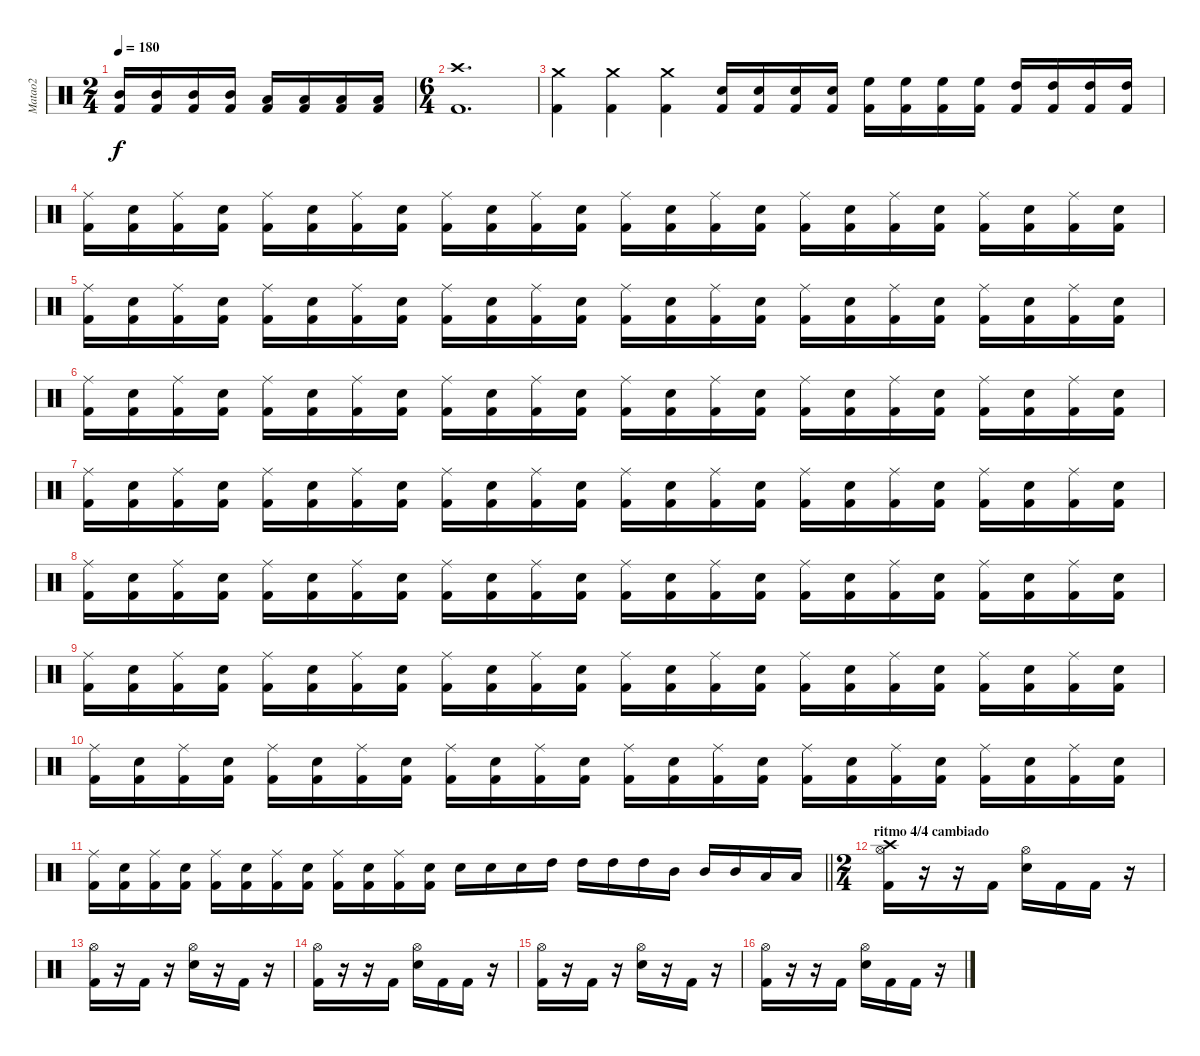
\track ("Matao2" "Matao2") {instrument percussion}
\staff {score}
\articulation defaults
\ts (2 4)
\tempo 180
\clef neutral
\ks c
("Kick (hit) 2" "Mid Tom (hit)").16{dy f} ("Kick (hit) 2" "Mid Tom (hit)").16 ("Kick (hit) 2" "Mid Tom (hit)").16 ("Kick (hit) 2" "Mid Tom (hit)").16 ("Kick (hit) 2" "Low Tom (hit)").16 ("Kick (hit) 2" "Low Tom (hit)").16 ("Kick (hit) 2" "Low Tom (hit)").16 ("Kick (hit) 2" "Low Tom (hit)").16 |
\ts (6 4)
("Kick (hit) 2" "Crash high (hit)").1{d} |
("Kick (hit) 2" "Crash medium (hit)").4 ("Kick (hit) 2" "Crash medium (hit)").4 ("Kick (hit) 2" "Crash medium (hit)").4 ("Kick (hit) 2" "Electric Snare (hit)").16 ("Kick (hit) 2" "Electric Snare (hit)").16 ("Kick (hit) 2" "Electric Snare (hit)").16 ("Kick (hit) 2" "Electric Snare (hit)").16 ("Kick (hit) 2" "High Floor Tom (hit)").16 ("Kick (hit) 2" "High Floor Tom (hit)").16 ("Kick (hit) 2" "High Floor Tom (hit)").16 ("Kick (hit) 2" "High Floor Tom (hit)").16 ("Kick (hit) 2" "High Tom (hit)").16 ("Kick (hit) 2" "High Tom (hit)").16 ("Kick (hit) 2" "High Tom (hit)").16 ("Kick (hit) 2" "High Tom (hit)").16 |
("Kick (hit) 2" "Ride (middle)").16 ("Kick (hit) 2" "Electric Snare (hit)").16 ("Kick (hit) 2" "Ride (middle)").16 ("Kick (hit) 2" "Electric Snare (hit)").16 ("Kick (hit) 2" "Ride (middle)").16 ("Kick (hit) 2" "Electric Snare (hit)").16 ("Kick (hit) 2" "Ride (middle)").16 ("Kick (hit) 2" "Electric Snare (hit)").16 ("Kick (hit) 2" "Ride (middle)").16 ("Kick (hit) 2" "Electric Snare (hit)").16 ("Kick (hit) 2" "Ride (middle)").16 ("Kick (hit) 2" "Electric Snare (hit)").16 ("Kick (hit) 2" "Ride (middle)").16 ("Kick (hit) 2" "Electric Snare (hit)").16 ("Kick (hit) 2" "Ride (middle)").16 ("Kick (hit) 2" "Electric Snare (hit)").16 ("Kick (hit) 2" "Ride (middle)").16 ("Kick (hit) 2" "Electric Snare (hit)").16 ("Kick (hit) 2" "Ride (middle)").16 ("Kick (hit) 2" "Electric Snare (hit)").16 ("Kick (hit) 2" "Ride (middle)").16 ("Kick (hit) 2" "Electric Snare (hit)").16 ("Kick (hit) 2" "Ride (middle)").16 ("Kick (hit) 2" "Electric Snare (hit)").16 |
("Kick (hit) 2" "Ride (middle)").16 ("Kick (hit) 2" "Electric Snare (hit)").16 ("Kick (hit) 2" "Ride (middle)").16 ("Kick (hit) 2" "Electric Snare (hit)").16 ("Kick (hit) 2" "Ride (middle)").16 ("Kick (hit) 2" "Electric Snare (hit)").16 ("Kick (hit) 2" "Ride (middle)").16 ("Kick (hit) 2" "Electric Snare (hit)").16 ("Kick (hit) 2" "Ride (middle)").16 ("Kick (hit) 2" "Electric Snare (hit)").16 ("Kick (hit) 2" "Ride (middle)").16 ("Kick (hit) 2" "Electric Snare (hit)").16 ("Kick (hit) 2" "Ride (middle)").16 ("Kick (hit) 2" "Electric Snare (hit)").16 ("Kick (hit) 2" "Ride (middle)").16 ("Kick (hit) 2" "Electric Snare (hit)").16 ("Kick (hit) 2" "Ride (middle)").16 ("Kick (hit) 2" "Electric Snare (hit)").16 ("Kick (hit) 2" "Ride (middle)").16 ("Kick (hit) 2" "Electric Snare (hit)").16 ("Kick (hit) 2" "Ride (middle)").16 ("Kick (hit) 2" "Electric Snare (hit)").16 ("Kick (hit) 2" "Ride (middle)").16 ("Kick (hit) 2" "Electric Snare (hit)").16 |
("Kick (hit) 2" "Ride (middle)").16 ("Kick (hit) 2" "Electric Snare (hit)").16 ("Kick (hit) 2" "Ride (middle)").16 ("Kick (hit) 2" "Electric Snare (hit)").16 ("Kick (hit) 2" "Ride (middle)").16 ("Kick (hit) 2" "Electric Snare (hit)").16 ("Kick (hit) 2" "Ride (middle)").16 ("Kick (hit) 2" "Electric Snare (hit)").16 ("Kick (hit) 2" "Ride (middle)").16 ("Kick (hit) 2" "Electric Snare (hit)").16 ("Kick (hit) 2" "Ride (middle)").16 ("Kick (hit) 2" "Electric Snare (hit)").16 ("Kick (hit) 2" "Ride (middle)").16 ("Kick (hit) 2" "Electric Snare (hit)").16 ("Kick (hit) 2" "Ride (middle)").16 ("Kick (hit) 2" "Electric Snare (hit)").16 ("Kick (hit) 2" "Ride (middle)").16 ("Kick (hit) 2" "Electric Snare (hit)").16 ("Kick (hit) 2" "Ride (middle)").16 ("Kick (hit) 2" "Electric Snare (hit)").16 ("Kick (hit) 2" "Ride (middle)").16 ("Kick (hit) 2" "Electric Snare (hit)").16 ("Kick (hit) 2" "Ride (middle)").16 ("Kick (hit) 2" "Electric Snare (hit)").16 |
("Kick (hit) 2" "Ride (middle)").16 ("Kick (hit) 2" "Electric Snare (hit)").16 ("Kick (hit) 2" "Ride (middle)").16 ("Kick (hit) 2" "Electric Snare (hit)").16 ("Kick (hit) 2" "Ride (middle)").16 ("Kick (hit) 2" "Electric Snare (hit)").16 ("Kick (hit) 2" "Ride (middle)").16 ("Kick (hit) 2" "Electric Snare (hit)").16 ("Kick (hit) 2" "Ride (middle)").16 ("Kick (hit) 2" "Electric Snare (hit)").16 ("Kick (hit) 2" "Ride (middle)").16 ("Kick (hit) 2" "Electric Snare (hit)").16 ("Kick (hit) 2" "Ride (middle)").16 ("Kick (hit) 2" "Electric Snare (hit)").16 ("Kick (hit) 2" "Ride (middle)").16 ("Kick (hit) 2" "Electric Snare (hit)").16 ("Kick (hit) 2" "Ride (middle)").16 ("Kick (hit) 2" "Electric Snare (hit)").16 ("Kick (hit) 2" "Ride (middle)").16 ("Kick (hit) 2" "Electric Snare (hit)").16 ("Kick (hit) 2" "Ride (middle)").16 ("Kick (hit) 2" "Electric Snare (hit)").16 ("Kick (hit) 2" "Ride (middle)").16 ("Kick (hit) 2" "Electric Snare (hit)").16 |
("Kick (hit) 2" "Ride (middle)").16 ("Kick (hit) 2" "Electric Snare (hit)").16 ("Kick (hit) 2" "Ride (middle)").16 ("Kick (hit) 2" "Electric Snare (hit)").16 ("Kick (hit) 2" "Ride (middle)").16 ("Kick (hit) 2" "Electric Snare (hit)").16 ("Kick (hit) 2" "Ride (middle)").16 ("Kick (hit) 2" "Electric Snare (hit)").16 ("Kick (hit) 2" "Ride (middle)").16 ("Kick (hit) 2" "Electric Snare (hit)").16 ("Kick (hit) 2" "Ride (middle)").16 ("Kick (hit) 2" "Electric Snare (hit)").16 ("Kick (hit) 2" "Ride (middle)").16 ("Kick (hit) 2" "Electric Snare (hit)").16 ("Kick (hit) 2" "Ride (middle)").16 ("Kick (hit) 2" "Electric Snare (hit)").16 ("Kick (hit) 2" "Ride (middle)").16 ("Kick (hit) 2" "Electric Snare (hit)").16 ("Kick (hit) 2" "Ride (middle)").16 ("Kick (hit) 2" "Electric Snare (hit)").16 ("Kick (hit) 2" "Ride (middle)").16 ("Kick (hit) 2" "Electric Snare (hit)").16 ("Kick (hit) 2" "Ride (middle)").16 ("Kick (hit) 2" "Electric Snare (hit)").16 |
("Kick (hit) 2" "Ride (middle)").16 ("Kick (hit) 2" "Electric Snare (hit)").16 ("Kick (hit) 2" "Ride (middle)").16 ("Kick (hit) 2" "Electric Snare (hit)").16 ("Kick (hit) 2" "Ride (middle)").16 ("Kick (hit) 2" "Electric Snare (hit)").16 ("Kick (hit) 2" "Ride (middle)").16 ("Kick (hit) 2" "Electric Snare (hit)").16 ("Kick (hit) 2" "Ride (middle)").16 ("Kick (hit) 2" "Electric Snare (hit)").16 ("Kick (hit) 2" "Ride (middle)").16 ("Kick (hit) 2" "Electric Snare (hit)").16 ("Kick (hit) 2" "Ride (middle)").16 ("Kick (hit) 2" "Electric Snare (hit)").16 ("Kick (hit) 2" "Ride (middle)").16 ("Kick (hit) 2" "Electric Snare (hit)").16 ("Kick (hit) 2" "Ride (middle)").16 ("Kick (hit) 2" "Electric Snare (hit)").16 ("Kick (hit) 2" "Ride (middle)").16 ("Kick (hit) 2" "Electric Snare (hit)").16 ("Kick (hit) 2" "Ride (middle)").16 ("Kick (hit) 2" "Electric Snare (hit)").16 ("Kick (hit) 2" "Ride (middle)").16 ("Kick (hit) 2" "Electric Snare (hit)").16 |
("Kick (hit) 2" "Ride (middle)").16 ("Kick (hit) 2" "Electric Snare (hit)").16 ("Kick (hit) 2" "Ride (middle)").16 ("Kick (hit) 2" "Electric Snare (hit)").16 ("Kick (hit) 2" "Ride (middle)").16 ("Kick (hit) 2" "Electric Snare (hit)").16 ("Kick (hit) 2" "Ride (middle)").16 ("Kick (hit) 2" "Electric Snare (hit)").16 ("Kick (hit) 2" "Ride (middle)").16 ("Kick (hit) 2" "Electric Snare (hit)").16 ("Kick (hit) 2" "Ride (middle)").16 ("Kick (hit) 2" "Electric Snare (hit)").16 ("Kick (hit) 2" "Ride (middle)").16 ("Kick (hit) 2" "Electric Snare (hit)").16 ("Kick (hit) 2" "Ride (middle)").16 ("Kick (hit) 2" "Electric Snare (hit)").16 ("Kick (hit) 2" "Ride (middle)").16 ("Kick (hit) 2" "Electric Snare (hit)").16 ("Kick (hit) 2" "Ride (middle)").16 ("Kick (hit) 2" "Electric Snare (hit)").16 ("Kick (hit) 2" "Ride (middle)").16 ("Kick (hit) 2" "Electric Snare (hit)").16 ("Kick (hit) 2" "Ride (middle)").16 ("Kick (hit) 2" "Electric Snare (hit)").16 |
\barLineRight lightlight
("Kick (hit) 2" "Ride (middle)").16 ("Kick (hit) 2" "Electric Snare (hit)").16 ("Kick (hit) 2" "Ride (middle)").16 ("Kick (hit) 2" "Electric Snare (hit)").16 ("Kick (hit) 2" "Ride (middle)").16 ("Kick (hit) 2" "Electric Snare (hit)").16 ("Kick (hit) 2" "Ride (middle)").16 ("Kick (hit) 2" "Electric Snare (hit)").16 ("Kick (hit) 2" "Ride (middle)").16 ("Kick (hit) 2" "Electric Snare (hit)").16 ("Kick (hit) 2" "Ride (middle)").16 ("Kick (hit) 2" "Electric Snare (hit)").16 "Electric Snare (hit)".16 "Electric Snare (hit)".16 "Electric Snare (hit)".16 "High Tom (hit)".16 "High Tom (hit)".16 "High Tom (hit)".16 "High Tom (hit)".16 "Mid Tom (hit)".16 "Mid Tom (hit)".16 "Mid Tom (hit)".16 "Low Tom (hit)".16 "Low Tom (hit)".16 |
\ts (2 4)
\section ("" "ritmo 4/4 cambiado")
("Kick (hit) 2" "Hi-Hat (open)" "Crash high (hit)").16 r.16 r.16 "Kick (hit) 2".16 ("Electric Snare (hit)" "Hi-Hat (open)").16 "Kick (hit) 2".16 "Kick (hit) 2".16 r.16 |
("Kick (hit) 2" "Hi-Hat (open)").16 r.16 "Kick (hit) 2".16 r.16 ("Electric Snare (hit)" "Hi-Hat (open)").16 r.16 "Kick (hit) 2".16 r.16 |
("Kick (hit) 2" "Hi-Hat (open)").16 r.16 r.16 "Kick (hit) 2".16 ("Electric Snare (hit)" "Hi-Hat (open)").16 "Kick (hit) 2".16 "Kick (hit) 2".16 r.16 |
("Kick (hit) 2" "Hi-Hat (open)").16 r.16 "Kick (hit) 2".16 r.16 ("Electric Snare (hit)" "Hi-Hat (open)").16 r.16 "Kick (hit) 2".16 r.16 |
("Kick (hit) 2" "Hi-Hat (open)").16 r.16 r.16 "Kick (hit) 2".16 ("Electric Snare (hit)" "Hi-Hat (open)").16 "Kick (hit) 2".16 "Kick (hit) 2".16 r.16
